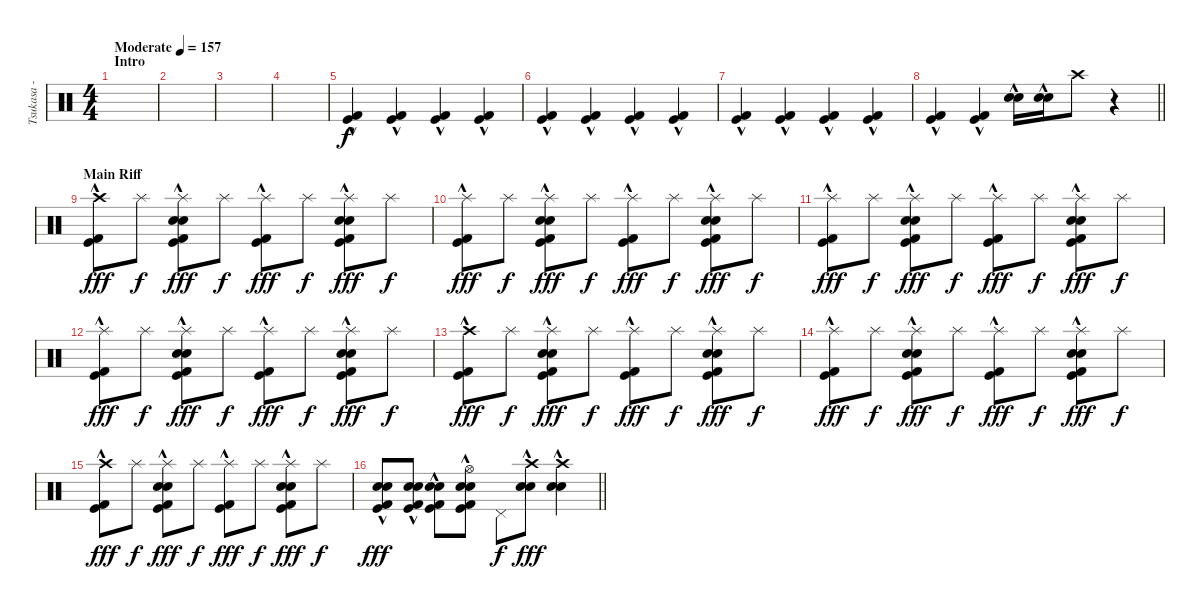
\track ("Tsukasa - Drums" "Tsukasa - ") {instrument percussion}
\staff {score}
\articulation defaults
\ts (4 4)
\section ("" "Intro")
\tempo (157 "Moderate")
\clef neutral
\ks c
|
|
|
|
("Kick (hit)"{hac} "Kick (hit) 2"{hac}).4 ("Kick (hit)"{hac} "Kick (hit) 2"{hac}).4 ("Kick (hit)"{hac} "Kick (hit) 2"{hac}).4 ("Kick (hit)"{hac} "Kick (hit) 2"{hac}).4 |
("Kick (hit)"{hac} "Kick (hit) 2"{hac}).4 ("Kick (hit)"{hac} "Kick (hit) 2"{hac}).4 ("Kick (hit)"{hac} "Kick (hit) 2"{hac}).4 ("Kick (hit)"{hac} "Kick (hit) 2"{hac}).4 |
("Kick (hit)"{hac} "Kick (hit) 2"{hac}).4 ("Kick (hit)"{hac} "Kick (hit) 2"{hac}).4 ("Kick (hit)"{hac} "Kick (hit) 2"{hac}).4 ("Kick (hit)"{hac} "Kick (hit) 2"{hac}).4 |
\barLineRight lightlight
("Kick (hit)"{hac} "Kick (hit) 2"{hac}).4 ("Kick (hit)"{hac} "Kick (hit) 2"{hac}).4 ("Electric Snare (hit)"{hac} "Snare (hit) 2").16 ("Electric Snare (hit)"{hac} "Snare (hit) 2").16 "Crash high (hit)".8{dy f} r.4 |
\section ("" "Main Riff")
("Crash high (hit)" "Kick (hit)"{hac} "Kick (hit) 2"{hac}).8{dy fff} "Splash (hit)".8{dy f} ("Splash (hit)"{hac} "Electric Snare (hit)"{hac} "Snare (hit) 2" "Kick (hit)"{hac} "Kick (hit) 2"{hac}).8{dy fff} "Splash (hit)".8{dy f} ("Splash (hit)"{hac} "Kick (hit)"{hac} "Kick (hit) 2"{hac}).8{dy fff} "Splash (hit)".8{dy f} ("Splash (hit)"{hac} "Electric Snare (hit)"{hac} "Snare (hit) 2" "Kick (hit)"{hac} "Kick (hit) 2"{hac}).8{dy fff} "Splash (hit)".8{dy f} |
("Splash (hit)"{hac} "Kick (hit)"{hac} "Kick (hit) 2"{hac}).8{dy fff} "Splash (hit)".8{dy f} ("Splash (hit)"{hac} "Electric Snare (hit)"{hac} "Snare (hit) 2" "Kick (hit)"{hac} "Kick (hit) 2"{hac}).8{dy fff} "Splash (hit)".8{dy f} ("Splash (hit)"{hac} "Kick (hit)"{hac} "Kick (hit) 2"{hac}).8{dy fff} "Splash (hit)".8{dy f} ("Splash (hit)"{hac} "Electric Snare (hit)"{hac} "Snare (hit) 2" "Kick (hit)"{hac} "Kick (hit) 2"{hac}).8{dy fff} "Splash (hit)".8{dy f} |
("Splash (hit)"{hac} "Kick (hit)"{hac} "Kick (hit) 2"{hac}).8{dy fff} "Splash (hit)".8{dy f} ("Splash (hit)"{hac} "Electric Snare (hit)"{hac} "Snare (hit) 2" "Kick (hit)"{hac} "Kick (hit) 2"{hac}).8{dy fff} "Splash (hit)".8{dy f} ("Splash (hit)"{hac} "Kick (hit)"{hac} "Kick (hit) 2"{hac}).8{dy fff} "Splash (hit)".8{dy f} ("Splash (hit)"{hac} "Electric Snare (hit)"{hac} "Snare (hit) 2" "Kick (hit)"{hac} "Kick (hit) 2"{hac}).8{dy fff} "Splash (hit)".8{dy f} |
("Splash (hit)"{hac} "Kick (hit)"{hac} "Kick (hit) 2"{hac}).8{dy fff} "Splash (hit)".8{dy f} ("Splash (hit)"{hac} "Electric Snare (hit)"{hac} "Snare (hit) 2" "Kick (hit)"{hac} "Kick (hit) 2"{hac}).8{dy fff} "Splash (hit)".8{dy f} ("Splash (hit)"{hac} "Kick (hit)"{hac} "Kick (hit) 2"{hac}).8{dy fff} "Splash (hit)".8{dy f} ("Splash (hit)"{hac} "Electric Snare (hit)"{hac} "Snare (hit) 2" "Kick (hit)"{hac} "Kick (hit) 2"{hac}).8{dy fff} "Splash (hit)".8{dy f} |
("Crash high (hit)" "Kick (hit)"{hac} "Kick (hit) 2"{hac}).8{dy fff} "Splash (hit)".8{dy f} ("Splash (hit)"{hac} "Electric Snare (hit)"{hac} "Snare (hit) 2" "Kick (hit)"{hac} "Kick (hit) 2"{hac}).8{dy fff} "Splash (hit)".8{dy f} ("Splash (hit)"{hac} "Kick (hit)"{hac} "Kick (hit) 2"{hac}).8{dy fff} "Splash (hit)".8{dy f} ("Splash (hit)"{hac} "Electric Snare (hit)"{hac} "Snare (hit) 2" "Kick (hit)"{hac} "Kick (hit) 2"{hac}).8{dy fff} "Splash (hit)".8{dy f} |
("Splash (hit)"{hac} "Kick (hit)"{hac} "Kick (hit) 2"{hac}).8{dy fff} "Splash (hit)".8{dy f} ("Splash (hit)"{hac} "Electric Snare (hit)"{hac} "Snare (hit) 2" "Kick (hit)"{hac} "Kick (hit) 2"{hac}).8{dy fff} "Splash (hit)".8{dy f} ("Splash (hit)"{hac} "Kick (hit)"{hac} "Kick (hit) 2"{hac}).8{dy fff} "Splash (hit)".8{dy f} ("Splash (hit)"{hac} "Electric Snare (hit)"{hac} "Snare (hit) 2" "Kick (hit)"{hac} "Kick (hit) 2"{hac}).8{dy fff} "Splash (hit)".8{dy f} |
("Crash high (hit)"{hac} "Kick (hit)"{hac} "Kick (hit) 2"{hac}).8{dy fff} "Splash (hit)".8{dy f} ("Splash (hit)"{hac} "Electric Snare (hit)"{hac} "Snare (hit) 2" "Kick (hit)"{hac} "Kick (hit) 2"{hac}).8{dy fff} "Splash (hit)".8{dy f} ("Splash (hit)"{hac} "Kick (hit)"{hac} "Kick (hit) 2"{hac}).8{dy fff} "Splash (hit)".8{dy f} ("Splash (hit)"{hac} "Electric Snare (hit)"{hac} "Snare (hit) 2" "Kick (hit)"{hac} "Kick (hit) 2"{hac}).8{dy fff} "Splash (hit)".8{dy f} |
\barLineRight lightlight
("Electric Snare (hit)"{hac} "Snare (hit) 2"{hac} "Kick (hit)"{hac} "Kick (hit) 2"{hac}).8{dy fff} ("Electric Snare (hit)"{hac} "Snare (hit) 2"{hac} "Kick (hit)"{hac} "Kick (hit) 2"{hac}).8 ("Electric Snare (hit)"{hac} "Snare (hit) 2"{hac} "Kick (hit)"{hac} "Kick (hit) 2"{hac}).8 ("Hi-Hat (open)" "Electric Snare (hit)"{hac} "Snare (hit) 2"{hac} "Kick (hit)"{hac} "Kick (hit) 2"{hac}).8 "Pedal Hi-Hat (hit)".8{dy f} ("Crash high (hit)" "Electric Snare (hit)"{hac} "Snare (hit) 2"{hac}).8{dy fff} ("Crash high (hit)" "Electric Snare (hit)"{hac} "Snare (hit) 2"{hac}).4
